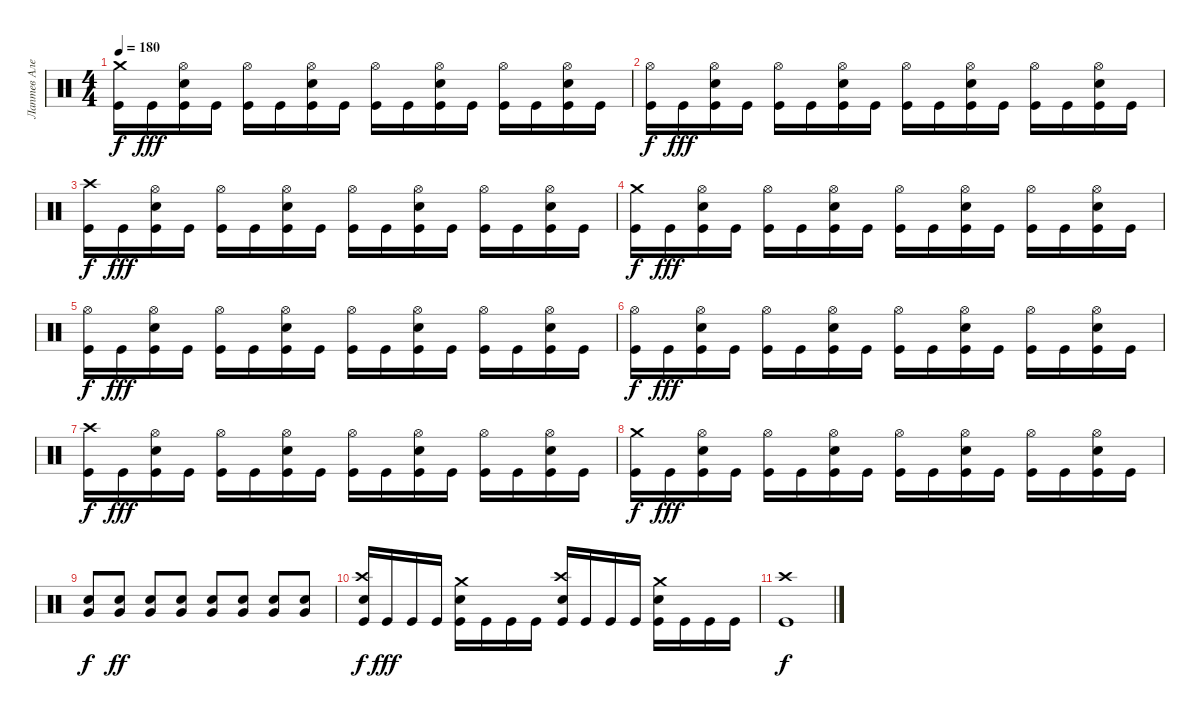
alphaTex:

\track ("Лаптев Алексей" "Лаптев Але") {instrument percussion}
\staff {score}
\articulation defaults
\ts (4 4)
\tempo 180
\clef neutral
\ks c
("Crash medium (hit)" "Kick (hit)").16{dy f} "Kick (hit)".16{dy fff} ("Hi-Hat (open)" "Snare (hit) 2" "Kick (hit)").16 "Kick (hit)".16 ("Hi-Hat (open)" "Kick (hit)").16 "Kick (hit)".16 ("Snare (hit) 2" "Hi-Hat (open)" "Kick (hit)").16 "Kick (hit)".16 ("Hi-Hat (open)" "Kick (hit)").16 "Kick (hit)".16 ("Hi-Hat (open)" "Snare (hit) 2" "Kick (hit)").16 "Kick (hit)".16 ("Hi-Hat (open)" "Kick (hit)").16 "Kick (hit)".16 ("Hi-Hat (open)" "Snare (hit) 2" "Kick (hit)").16 "Kick (hit)".16 |
("Hi-Hat (open)" "Kick (hit)").16{dy f} "Kick (hit)".16{dy fff} ("Hi-Hat (open)" "Snare (hit) 2" "Kick (hit)").16 "Kick (hit)".16 ("Hi-Hat (open)" "Kick (hit)").16 "Kick (hit)".16 ("Snare (hit) 2" "Hi-Hat (open)" "Kick (hit)").16 "Kick (hit)".16 ("Hi-Hat (open)" "Kick (hit)").16 "Kick (hit)".16 ("Hi-Hat (open)" "Snare (hit) 2" "Kick (hit)").16 "Kick (hit)".16 ("Hi-Hat (open)" "Kick (hit)").16 "Kick (hit)".16 ("Hi-Hat (open)" "Snare (hit) 2" "Kick (hit)").16 "Kick (hit)".16 |
("Crash high (hit)" "Kick (hit)").16{dy f} "Kick (hit)".16{dy fff} ("Hi-Hat (open)" "Snare (hit) 2" "Kick (hit)").16 "Kick (hit)".16 ("Hi-Hat (open)" "Kick (hit)").16 "Kick (hit)".16 ("Snare (hit) 2" "Hi-Hat (open)" "Kick (hit)").16 "Kick (hit)".16 ("Hi-Hat (open)" "Kick (hit)").16 "Kick (hit)".16 ("Hi-Hat (open)" "Snare (hit) 2" "Kick (hit)").16 "Kick (hit)".16 ("Hi-Hat (open)" "Kick (hit)").16 "Kick (hit)".16 ("Hi-Hat (open)" "Snare (hit) 2" "Kick (hit)").16 "Kick (hit)".16 |
("Crash medium (hit)" "Kick (hit)").16{dy f} "Kick (hit)".16{dy fff} ("Hi-Hat (open)" "Snare (hit) 2" "Kick (hit)").16 "Kick (hit)".16 ("Hi-Hat (open)" "Kick (hit)").16 "Kick (hit)".16 ("Snare (hit) 2" "Hi-Hat (open)" "Kick (hit)").16 "Kick (hit)".16 ("Hi-Hat (open)" "Kick (hit)").16 "Kick (hit)".16 ("Hi-Hat (open)" "Snare (hit) 2" "Kick (hit)").16 "Kick (hit)".16 ("Hi-Hat (open)" "Kick (hit)").16 "Kick (hit)".16 ("Hi-Hat (open)" "Snare (hit) 2" "Kick (hit)").16 "Kick (hit)".16 |
("Hi-Hat (open)" "Kick (hit)").16{dy f} "Kick (hit)".16{dy fff} ("Hi-Hat (open)" "Snare (hit) 2" "Kick (hit)").16 "Kick (hit)".16 ("Hi-Hat (open)" "Kick (hit)").16 "Kick (hit)".16 ("Snare (hit) 2" "Hi-Hat (open)" "Kick (hit)").16 "Kick (hit)".16 ("Hi-Hat (open)" "Kick (hit)").16 "Kick (hit)".16 ("Hi-Hat (open)" "Snare (hit) 2" "Kick (hit)").16 "Kick (hit)".16 ("Hi-Hat (open)" "Kick (hit)").16 "Kick (hit)".16 ("Hi-Hat (open)" "Snare (hit) 2" "Kick (hit)").16 "Kick (hit)".16 |
("Hi-Hat (open)" "Kick (hit)").16{dy f} "Kick (hit)".16{dy fff} ("Hi-Hat (open)" "Snare (hit) 2" "Kick (hit)").16 "Kick (hit)".16 ("Hi-Hat (open)" "Kick (hit)").16 "Kick (hit)".16 ("Snare (hit) 2" "Hi-Hat (open)" "Kick (hit)").16 "Kick (hit)".16 ("Hi-Hat (open)" "Kick (hit)").16 "Kick (hit)".16 ("Hi-Hat (open)" "Snare (hit) 2" "Kick (hit)").16 "Kick (hit)".16 ("Hi-Hat (open)" "Kick (hit)").16 "Kick (hit)".16 ("Hi-Hat (open)" "Snare (hit) 2" "Kick (hit)").16 "Kick (hit)".16 |
("Crash high (hit)" "Kick (hit)").16{dy f} "Kick (hit)".16{dy fff} ("Hi-Hat (open)" "Snare (hit) 2" "Kick (hit)").16 "Kick (hit)".16 ("Hi-Hat (open)" "Kick (hit)").16 "Kick (hit)".16 ("Snare (hit) 2" "Hi-Hat (open)" "Kick (hit)").16 "Kick (hit)".16 ("Hi-Hat (open)" "Kick (hit)").16 "Kick (hit)".16 ("Hi-Hat (open)" "Snare (hit) 2" "Kick (hit)").16 "Kick (hit)".16 ("Hi-Hat (open)" "Kick (hit)").16 "Kick (hit)".16 ("Hi-Hat (open)" "Snare (hit) 2" "Kick (hit)").16 "Kick (hit)".16 |
("Crash medium (hit)" "Kick (hit)").16{dy f} "Kick (hit)".16{dy fff} ("Hi-Hat (open)" "Snare (hit) 2" "Kick (hit)").16 "Kick (hit)".16 ("Hi-Hat (open)" "Kick (hit)").16 "Kick (hit)".16 ("Snare (hit) 2" "Hi-Hat (open)" "Kick (hit)").16 "Kick (hit)".16 ("Hi-Hat (open)" "Kick (hit)").16 "Kick (hit)".16 ("Hi-Hat (open)" "Snare (hit) 2" "Kick (hit)").16 "Kick (hit)".16 ("Hi-Hat (open)" "Kick (hit)").16 "Kick (hit)".16 ("Hi-Hat (open)" "Snare (hit) 2" "Kick (hit)").16 "Kick (hit)".16 |
("Electric Snare (hit)" "Very Low Tom (hit)").8{dy f} ("Electric Snare (hit)" "Very Low Tom (hit)").8{dy ff} ("Electric Snare (hit)" "Very Low Tom (hit)").8 ("Electric Snare (hit)" "Very Low Tom (hit)").8 ("Electric Snare (hit)" "Very Low Tom (hit)").8 ("Electric Snare (hit)" "Very Low Tom (hit)").8 ("Electric Snare (hit)" "Very Low Tom (hit)").8 ("Electric Snare (hit)" "Very Low Tom (hit)").8 |
("Crash high (hit)" "Electric Snare (hit)" "Kick (hit)").16{dy f} "Kick (hit)".16{dy fff} "Kick (hit)".16 "Kick (hit)".16 ("Electric Snare (hit)" "Crash medium (hit)" "Kick (hit)").16 "Kick (hit)".16 "Kick (hit)".16 "Kick (hit)".16 ("Electric Snare (hit)" "Crash high (hit)" "Kick (hit)").16 "Kick (hit)".16 "Kick (hit)".16 "Kick (hit)".16 ("Electric Snare (hit)" "Crash medium (hit)" "Kick (hit)").16 "Kick (hit)".16 "Kick (hit)".16 "Kick (hit)".16 |
("Crash high (hit)" "Kick (hit)").1{dy f}
